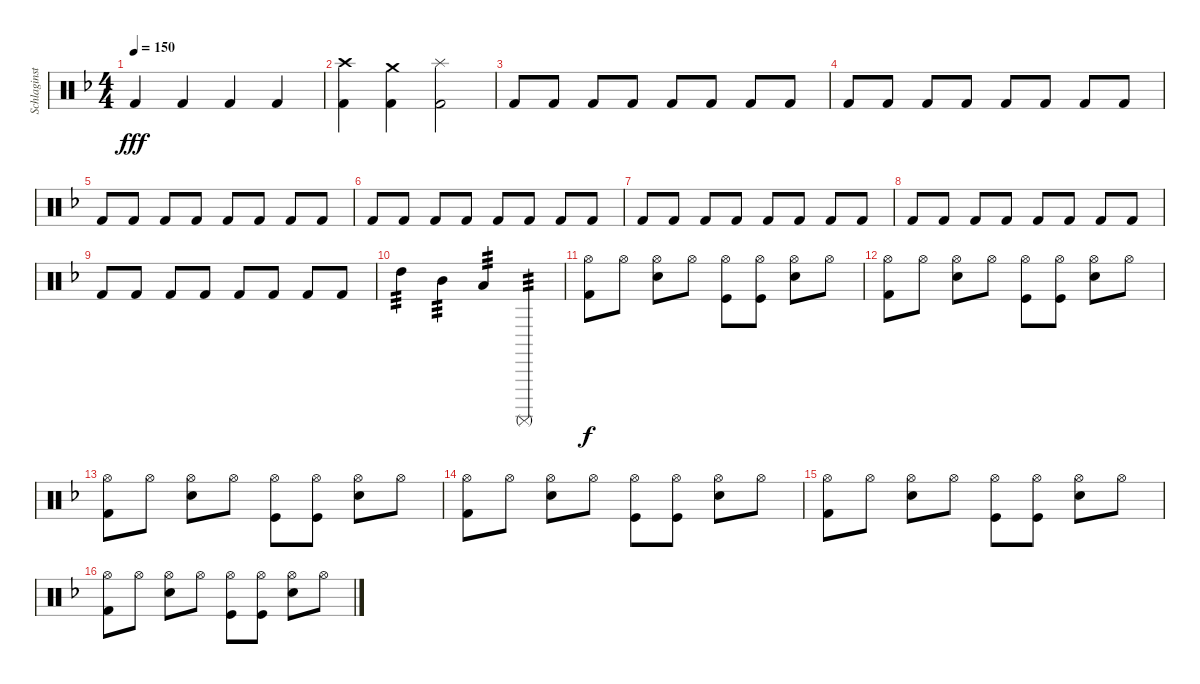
\track ("Schlaginstrumente - Auswahl" "Schlaginst") {instrument percussion}
\staff {score}
\articulation defaults
\ts (4 4)
\tempo 150
\clef neutral
\ks f "Kick (hit) 2".4{dy fff} "Kick (hit) 2".4 "Kick (hit) 2".4 "Kick (hit) 2".4
|
("Kick (hit) 2" "Crash high (hit)").4 ("Kick (hit) 2" "Crash medium (hit)").4 ("Kick (hit) 2" "Splash (hit)").2 |
"Kick (hit) 2".8 "Kick (hit) 2".8 "Kick (hit) 2".8 "Kick (hit) 2".8 "Kick (hit) 2".8 "Kick (hit) 2".8 "Kick (hit) 2".8 "Kick (hit) 2".8 |
"Kick (hit) 2".8 "Kick (hit) 2".8 "Kick (hit) 2".8 "Kick (hit) 2".8 "Kick (hit) 2".8 "Kick (hit) 2".8 "Kick (hit) 2".8 "Kick (hit) 2".8 |
"Kick (hit) 2".8 "Kick (hit) 2".8 "Kick (hit) 2".8 "Kick (hit) 2".8 "Kick (hit) 2".8 "Kick (hit) 2".8 "Kick (hit) 2".8 "Kick (hit) 2".8 |
"Kick (hit) 2".8 "Kick (hit) 2".8 "Kick (hit) 2".8 "Kick (hit) 2".8 "Kick (hit) 2".8 "Kick (hit) 2".8 "Kick (hit) 2".8 "Kick (hit) 2".8 |
"Kick (hit) 2".8 "Kick (hit) 2".8 "Kick (hit) 2".8 "Kick (hit) 2".8 "Kick (hit) 2".8 "Kick (hit) 2".8 "Kick (hit) 2".8 "Kick (hit) 2".8 |
"Kick (hit) 2".8 "Kick (hit) 2".8 "Kick (hit) 2".8 "Kick (hit) 2".8 "Kick (hit) 2".8 "Kick (hit) 2".8 "Kick (hit) 2".8 "Kick (hit) 2".8 |
"Kick (hit) 2".8 "Kick (hit) 2".8 "Kick (hit) 2".8 "Kick (hit) 2".8 "Kick (hit) 2".8 "Kick (hit) 2".8 "Kick (hit) 2".8 "Kick (hit) 2".8 |
"High Tom (hit)".4{tp 3} "Mid Tom (hit)".4{tp 3} "Low Tom (hit)".4{tp 3} "Surdo (mute)".4{tp 3} |
("Hi-Hat (open)" "Kick (hit) 2").8{dy f} "Hi-Hat (open)".8 ("Hi-Hat (open)" "Snare (hit) 2").8 "Hi-Hat (open)".8 ("Hi-Hat (open)" "Kick (hit)").8 ("Kick (hit)" "Hi-Hat (open)").8 ("Hi-Hat (open)" "Snare (hit) 2").8 "Hi-Hat (open)".8 |
("Hi-Hat (open)" "Kick (hit) 2").8 "Hi-Hat (open)".8 ("Hi-Hat (open)" "Snare (hit) 2").8 "Hi-Hat (open)".8 ("Hi-Hat (open)" "Kick (hit)").8 ("Kick (hit)" "Hi-Hat (open)").8 ("Hi-Hat (open)" "Snare (hit) 2").8 "Hi-Hat (open)".8 |
("Hi-Hat (open)" "Kick (hit) 2").8 "Hi-Hat (open)".8 ("Hi-Hat (open)" "Snare (hit) 2").8 "Hi-Hat (open)".8 ("Hi-Hat (open)" "Kick (hit)").8 ("Kick (hit)" "Hi-Hat (open)").8 ("Hi-Hat (open)" "Snare (hit) 2").8 "Hi-Hat (open)".8 |
("Hi-Hat (open)" "Kick (hit) 2").8 "Hi-Hat (open)".8 ("Hi-Hat (open)" "Snare (hit) 2").8 "Hi-Hat (open)".8 ("Hi-Hat (open)" "Kick (hit)").8 ("Kick (hit)" "Hi-Hat (open)").8 ("Hi-Hat (open)" "Snare (hit) 2").8 "Hi-Hat (open)".8 |
("Hi-Hat (open)" "Kick (hit) 2").8 "Hi-Hat (open)".8 ("Hi-Hat (open)" "Snare (hit) 2").8 "Hi-Hat (open)".8 ("Hi-Hat (open)" "Kick (hit)").8 ("Kick (hit)" "Hi-Hat (open)").8 ("Hi-Hat (open)" "Snare (hit) 2").8 "Hi-Hat (open)".8 |
("Hi-Hat (open)" "Kick (hit) 2").8 "Hi-Hat (open)".8 ("Hi-Hat (open)" "Snare (hit) 2").8 "Hi-Hat (open)".8 ("Hi-Hat (open)" "Kick (hit)").8 ("Kick (hit)" "Hi-Hat (open)").8 ("Hi-Hat (open)" "Snare (hit) 2").8 "Hi-Hat (open)".8
